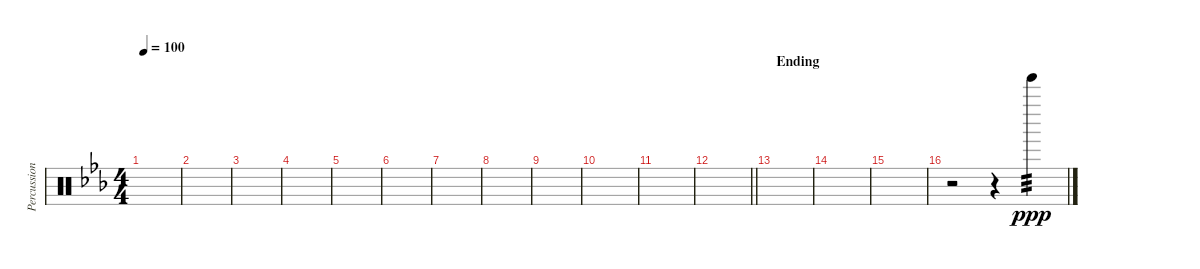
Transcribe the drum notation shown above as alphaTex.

\track ("Percussion (Tainaka Ritsu)" "Percussion") {instrument percussion}
\staff {score}
\articulation defaults
\ts (4 4)
\tempo 100
\clef neutral
\ks eb
|
|
|
|
|
|
|
|
|
|
|
\barLineRight lightlight
|
\section ("" "Ending")
|
|
|
r.2 r.4 "Tinkle Bell (hit)".4{tp 3 dy ppp}
